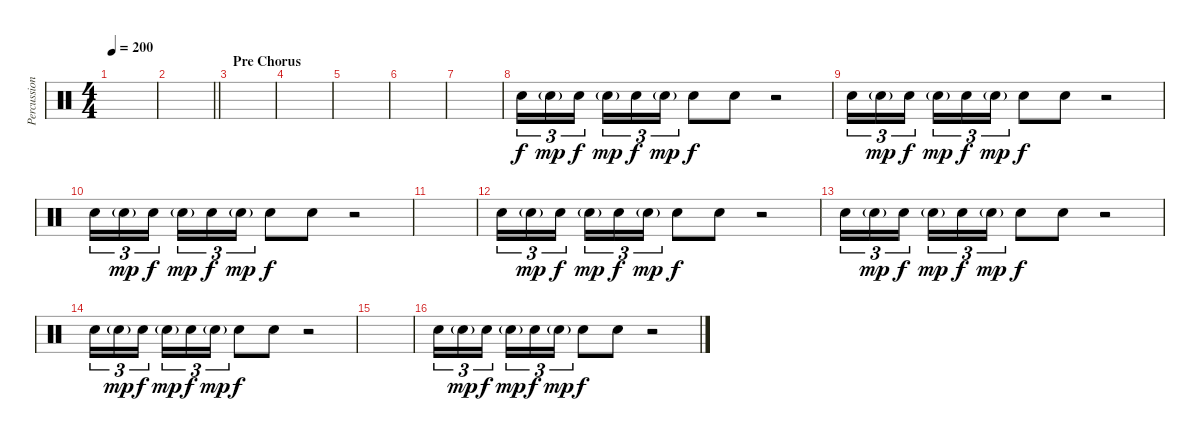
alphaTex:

\track ("Percussion" "Percussion") {instrument percussion}
\staff {score}
\articulation defaults
\ts (4 4)
\tempo 200
\clef neutral
\ks c
|
\barLineRight lightlight
|
\section ("" "Pre Chorus")
|
|
|
|
|
"Snare (hit) 2".16{tu (3 2)} "Snare (hit) 2"{g}.16{tu (3 2) dy mp} "Snare (hit) 2".16{tu (3 2) dy f beam splitsecondary} "Snare (hit) 2"{g}.16{tu (3 2) dy mp} "Snare (hit) 2".16{tu (3 2) dy f} "Snare (hit) 2"{g}.16{tu (3 2) dy mp} "Snare (hit) 2".8{dy f} "Snare (hit) 2".8 r.2 |
"Snare (hit) 2".16{tu (3 2)} "Snare (hit) 2"{g}.16{tu (3 2) dy mp} "Snare (hit) 2".16{tu (3 2) dy f beam splitsecondary} "Snare (hit) 2"{g}.16{tu (3 2) dy mp} "Snare (hit) 2".16{tu (3 2) dy f} "Snare (hit) 2"{g}.16{tu (3 2) dy mp} "Snare (hit) 2".8{dy f} "Snare (hit) 2".8 r.2 |
"Snare (hit) 2".16{tu (3 2)} "Snare (hit) 2"{g}.16{tu (3 2) dy mp} "Snare (hit) 2".16{tu (3 2) dy f beam splitsecondary} "Snare (hit) 2"{g}.16{tu (3 2) dy mp} "Snare (hit) 2".16{tu (3 2) dy f} "Snare (hit) 2"{g}.16{tu (3 2) dy mp} "Snare (hit) 2".8{dy f} "Snare (hit) 2".8 r.2 |
|
"Snare (hit) 2".16{tu (3 2)} "Snare (hit) 2"{g}.16{tu (3 2) dy mp} "Snare (hit) 2".16{tu (3 2) dy f beam splitsecondary} "Snare (hit) 2"{g}.16{tu (3 2) dy mp} "Snare (hit) 2".16{tu (3 2) dy f} "Snare (hit) 2"{g}.16{tu (3 2) dy mp} "Snare (hit) 2".8{dy f} "Snare (hit) 2".8 r.2 |
"Snare (hit) 2".16{tu (3 2)} "Snare (hit) 2"{g}.16{tu (3 2) dy mp} "Snare (hit) 2".16{tu (3 2) dy f beam splitsecondary} "Snare (hit) 2"{g}.16{tu (3 2) dy mp} "Snare (hit) 2".16{tu (3 2) dy f} "Snare (hit) 2"{g}.16{tu (3 2) dy mp} "Snare (hit) 2".8{dy f} "Snare (hit) 2".8 r.2 |
"Snare (hit) 2".16{tu (3 2)} "Snare (hit) 2"{g}.16{tu (3 2) dy mp} "Snare (hit) 2".16{tu (3 2) dy f beam splitsecondary} "Snare (hit) 2"{g}.16{tu (3 2) dy mp} "Snare (hit) 2".16{tu (3 2) dy f} "Snare (hit) 2"{g}.16{tu (3 2) dy mp} "Snare (hit) 2".8{dy f} "Snare (hit) 2".8 r.2 |
|
"Snare (hit) 2".16{tu (3 2)} "Snare (hit) 2"{g}.16{tu (3 2) dy mp} "Snare (hit) 2".16{tu (3 2) dy f beam splitsecondary} "Snare (hit) 2"{g}.16{tu (3 2) dy mp} "Snare (hit) 2".16{tu (3 2) dy f} "Snare (hit) 2"{g}.16{tu (3 2) dy mp} "Snare (hit) 2".8{dy f} "Snare (hit) 2".8 r.2
